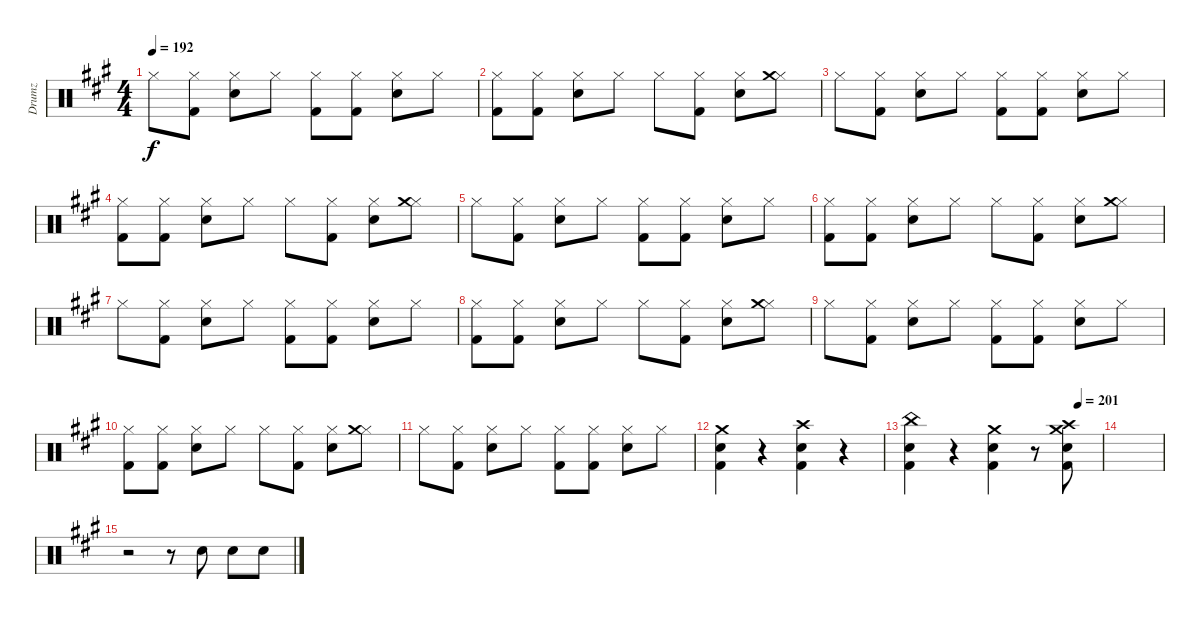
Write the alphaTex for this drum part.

\track ("Drumz" "Drumz") {instrument percussion}
\staff {score}
\articulation defaults
\ts (4 4)
\tempo 192
\clef neutral
\ks a "Hi-Hat (closed)".8{dy f}
("Hi-Hat (closed)" "Kick (hit) 2").8 ("Hi-Hat (closed)" "Snare (hit) 2").8 "Hi-Hat (closed)".8 ("Hi-Hat (closed)" "Kick (hit) 2").8 ("Hi-Hat (closed)" "Kick (hit) 2").8 ("Hi-Hat (closed)" "Snare (hit) 2").8 "Hi-Hat (closed)".8 |
("Hi-Hat (closed)" "Kick (hit) 2").8 ("Hi-Hat (closed)" "Kick (hit) 2").8 ("Hi-Hat (closed)" "Snare (hit) 2").8 "Hi-Hat (closed)".8 "Hi-Hat (closed)".8 ("Hi-Hat (closed)" "Kick (hit) 2").8 ("Hi-Hat (closed)" "Snare (hit) 2").8 ("Hi-Hat (closed)" "Crash medium (hit)").8 |
"Hi-Hat (closed)".8 ("Hi-Hat (closed)" "Kick (hit) 2").8 ("Hi-Hat (closed)" "Snare (hit) 2").8 "Hi-Hat (closed)".8 ("Hi-Hat (closed)" "Kick (hit) 2").8 ("Hi-Hat (closed)" "Kick (hit) 2").8 ("Hi-Hat (closed)" "Snare (hit) 2").8 "Hi-Hat (closed)".8 |
("Hi-Hat (closed)" "Kick (hit) 2").8 ("Hi-Hat (closed)" "Kick (hit) 2").8 ("Hi-Hat (closed)" "Snare (hit) 2").8 "Hi-Hat (closed)".8 "Hi-Hat (closed)".8 ("Hi-Hat (closed)" "Kick (hit) 2").8 ("Hi-Hat (closed)" "Snare (hit) 2").8 ("Hi-Hat (closed)" "Crash medium (hit)").8 |
"Hi-Hat (closed)".8 ("Hi-Hat (closed)" "Kick (hit) 2").8 ("Hi-Hat (closed)" "Snare (hit) 2").8 "Hi-Hat (closed)".8 ("Hi-Hat (closed)" "Kick (hit) 2").8 ("Hi-Hat (closed)" "Kick (hit) 2").8 ("Hi-Hat (closed)" "Snare (hit) 2").8 "Hi-Hat (closed)".8 |
("Hi-Hat (closed)" "Kick (hit) 2").8 ("Hi-Hat (closed)" "Kick (hit) 2").8 ("Hi-Hat (closed)" "Snare (hit) 2").8 "Hi-Hat (closed)".8 "Hi-Hat (closed)".8 ("Hi-Hat (closed)" "Kick (hit) 2").8 ("Hi-Hat (closed)" "Snare (hit) 2").8 ("Hi-Hat (closed)" "Crash medium (hit)").8 |
"Hi-Hat (closed)".8 ("Hi-Hat (closed)" "Kick (hit) 2").8 ("Hi-Hat (closed)" "Snare (hit) 2").8 "Hi-Hat (closed)".8 ("Hi-Hat (closed)" "Kick (hit) 2").8 ("Hi-Hat (closed)" "Kick (hit) 2").8 ("Hi-Hat (closed)" "Snare (hit) 2").8 "Hi-Hat (closed)".8 |
("Hi-Hat (closed)" "Kick (hit) 2").8 ("Hi-Hat (closed)" "Kick (hit) 2").8 ("Hi-Hat (closed)" "Snare (hit) 2").8 "Hi-Hat (closed)".8 "Hi-Hat (closed)".8 ("Hi-Hat (closed)" "Kick (hit) 2").8 ("Hi-Hat (closed)" "Snare (hit) 2").8 ("Hi-Hat (closed)" "Crash medium (hit)").8 |
"Hi-Hat (closed)".8 ("Hi-Hat (closed)" "Kick (hit) 2").8 ("Hi-Hat (closed)" "Snare (hit) 2").8 "Hi-Hat (closed)".8 ("Hi-Hat (closed)" "Kick (hit) 2").8 ("Hi-Hat (closed)" "Kick (hit) 2").8 ("Hi-Hat (closed)" "Snare (hit) 2").8 "Hi-Hat (closed)".8 |
("Hi-Hat (closed)" "Kick (hit) 2").8 ("Hi-Hat (closed)" "Kick (hit) 2").8 ("Hi-Hat (closed)" "Snare (hit) 2").8 "Hi-Hat (closed)".8 "Hi-Hat (closed)".8 ("Hi-Hat (closed)" "Kick (hit) 2").8 ("Hi-Hat (closed)" "Snare (hit) 2").8 ("Hi-Hat (closed)" "Crash medium (hit)").8 |
"Hi-Hat (closed)".8 ("Hi-Hat (closed)" "Kick (hit) 2").8 ("Hi-Hat (closed)" "Snare (hit) 2").8 "Hi-Hat (closed)".8 ("Hi-Hat (closed)" "Kick (hit) 2").8 ("Hi-Hat (closed)" "Kick (hit) 2").8 ("Hi-Hat (closed)" "Snare (hit) 2").8 "Hi-Hat (closed)".8 |
("Snare (hit) 2" "Kick (hit) 2" "Crash medium (hit)").4 r.4 ("Snare (hit) 2" "Kick (hit) 2" "Crash high (hit)").4 r.4 |
\tempo (201 0.875)
("Snare (hit) 2" "Kick (hit) 2" "China (hit)").4 r.4 ("Snare (hit) 2" "Kick (hit) 2" "Crash medium (hit)").4 r.8 ("Snare (hit) 2" "Kick (hit) 2" "Crash medium (hit)" "Crash high (hit)").8 |
|
r.2 r.8 "Snare (hit) 2".8 "Snare (hit) 2".8 "Snare (hit) 2".8
